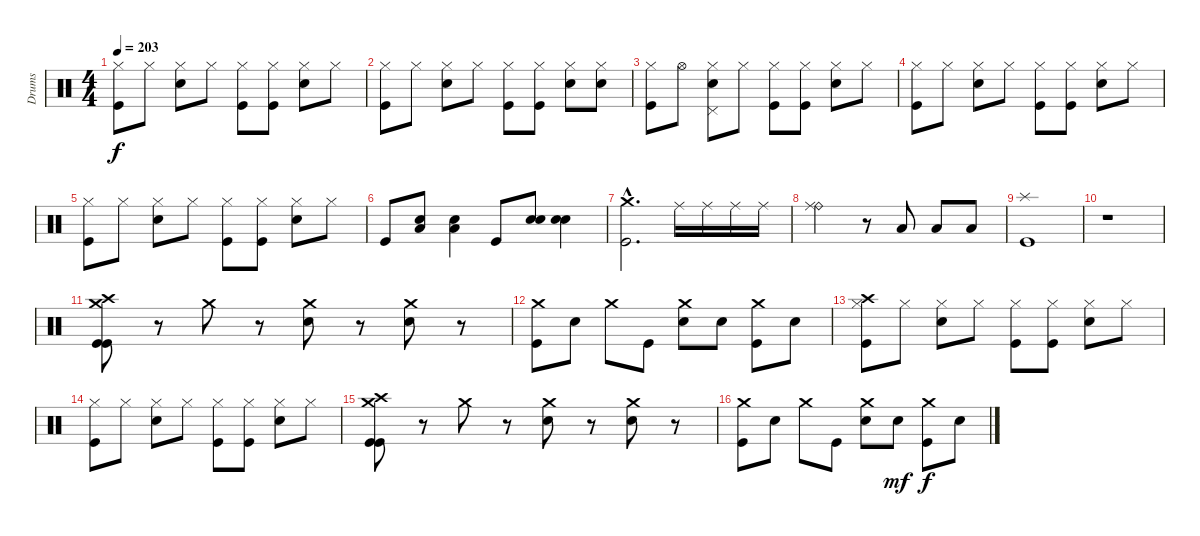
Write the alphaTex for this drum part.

\track ("Drums" "Drums") {instrument percussion}
\staff {score}
\articulation defaults
\ts (4 4)
\tempo 203
\clef neutral
\ks c
("Hi-Hat (closed)" "Kick (hit)").8{dy f} "Hi-Hat (closed)".8 ("Hi-Hat (closed)" "Snare (hit) 2").8 "Hi-Hat (closed)".8 ("Hi-Hat (closed)" "Kick (hit)").8 ("Hi-Hat (closed)" "Kick (hit)").8 ("Hi-Hat (closed)" "Snare (hit) 2").8 "Hi-Hat (closed)".8 |
("Hi-Hat (closed)" "Kick (hit)").8 "Hi-Hat (closed)".8 ("Hi-Hat (closed)" "Snare (hit) 2").8 "Hi-Hat (closed)".8 ("Hi-Hat (closed)" "Kick (hit)").8 ("Hi-Hat (closed)" "Kick (hit)").8 ("Hi-Hat (closed)" "Snare (hit) 2").8 ("Hi-Hat (closed)" "Snare (hit) 2").8 |
("Hi-Hat (closed)" "Kick (hit)").8 "Hi-Hat (open)".8 ("Hi-Hat (closed)" "Pedal Hi-Hat (hit)" "Snare (hit) 2").8 "Hi-Hat (closed)".8 ("Hi-Hat (closed)" "Kick (hit)").8 ("Hi-Hat (closed)" "Kick (hit)").8 ("Hi-Hat (closed)" "Snare (hit) 2").8 "Hi-Hat (closed)".8 |
("Hi-Hat (closed)" "Kick (hit)").8 "Hi-Hat (closed)".8 ("Hi-Hat (closed)" "Snare (hit) 2").8 "Hi-Hat (closed)".8 ("Hi-Hat (closed)" "Kick (hit)").8 ("Hi-Hat (closed)" "Kick (hit)").8 ("Hi-Hat (closed)" "Snare (hit) 2").8 "Hi-Hat (closed)".8 |
("Hi-Hat (closed)" "Kick (hit)").8 "Hi-Hat (closed)".8 ("Hi-Hat (closed)" "Snare (hit) 2").8 "Hi-Hat (closed)".8 ("Hi-Hat (closed)" "Kick (hit)").8 ("Hi-Hat (closed)" "Kick (hit)").8 ("Hi-Hat (closed)" "Snare (hit) 2").8 "Hi-Hat (closed)".8 |
"Kick (hit)".8 ("Low Tom (hit)" "Snare (hit) 2").8 ("Low Tom (hit)" "Snare (hit) 2").4 "Kick (hit)".8 ("Snare (hit) 2" "Snare (hit) 2").8 ("Snare (hit) 2" "Snare (hit) 2").4 |
("Crash medium (hit)"{hac} "Kick (hit)"{hac}).2{d} "Ride (middle)".16 "Ride (middle)".16 "Ride (middle)".16 "Ride (middle)".16 |
("Ride (bell)" "Ride (middle)").2 r.8 "Low Tom (hit)".8 "Low Floor Tom (hit)".8 "Low Floor Tom (hit)".8 |
("Splash (hit)" "Kick (hit)").1 |
r.1 |
("Crash high (hit)" "Kick (hit)" "Crash medium (hit)" "Kick (hit)").8 r.8 "Crash medium (hit)".8 r.8 ("Crash medium (hit)" "Snare (hit) 2").8 r.8 ("Crash medium (hit)" "Snare (hit) 2").8 r.8 |
("Crash medium (hit)" "Kick (hit)").8 "Snare (hit) 2".8 "Crash medium (hit)".8 "Kick (hit)".8 ("Crash medium (hit)" "Snare (hit) 2").8 "Snare (hit) 2".8 ("Crash medium (hit)" "Kick (hit)").8 "Snare (hit) 2".8 |
("Crash high (hit)" "Hi-Hat (closed)" "Kick (hit)").8 "Hi-Hat (closed)".8 ("Hi-Hat (closed)" "Snare (hit) 2").8 "Hi-Hat (closed)".8 ("Hi-Hat (closed)" "Kick (hit)").8 ("Hi-Hat (closed)" "Kick (hit)").8 ("Hi-Hat (closed)" "Snare (hit) 2").8 "Hi-Hat (closed)".8 |
("Hi-Hat (closed)" "Kick (hit)").8 "Hi-Hat (closed)".8 ("Hi-Hat (closed)" "Snare (hit) 2").8 "Hi-Hat (closed)".8 ("Hi-Hat (closed)" "Kick (hit)").8 ("Hi-Hat (closed)" "Kick (hit)").8 ("Hi-Hat (closed)" "Snare (hit) 2").8 "Hi-Hat (closed)".8 |
("Crash high (hit)" "Kick (hit)" "Crash medium (hit)" "Kick (hit)").8 r.8 "Crash medium (hit)".8 r.8 ("Crash medium (hit)" "Snare (hit) 2").8 r.8 ("Crash medium (hit)" "Snare (hit) 2").8 r.8 |
("Crash medium (hit)" "Kick (hit)").8 "Snare (hit) 2".8 "Crash medium (hit)".8 "Kick (hit)".8 ("Crash medium (hit)" "Snare (hit) 2").8 "Snare (hit) 2".8{dy mf} ("Crash medium (hit)" "Kick (hit)").8{dy f} "Snare (hit) 2".8
